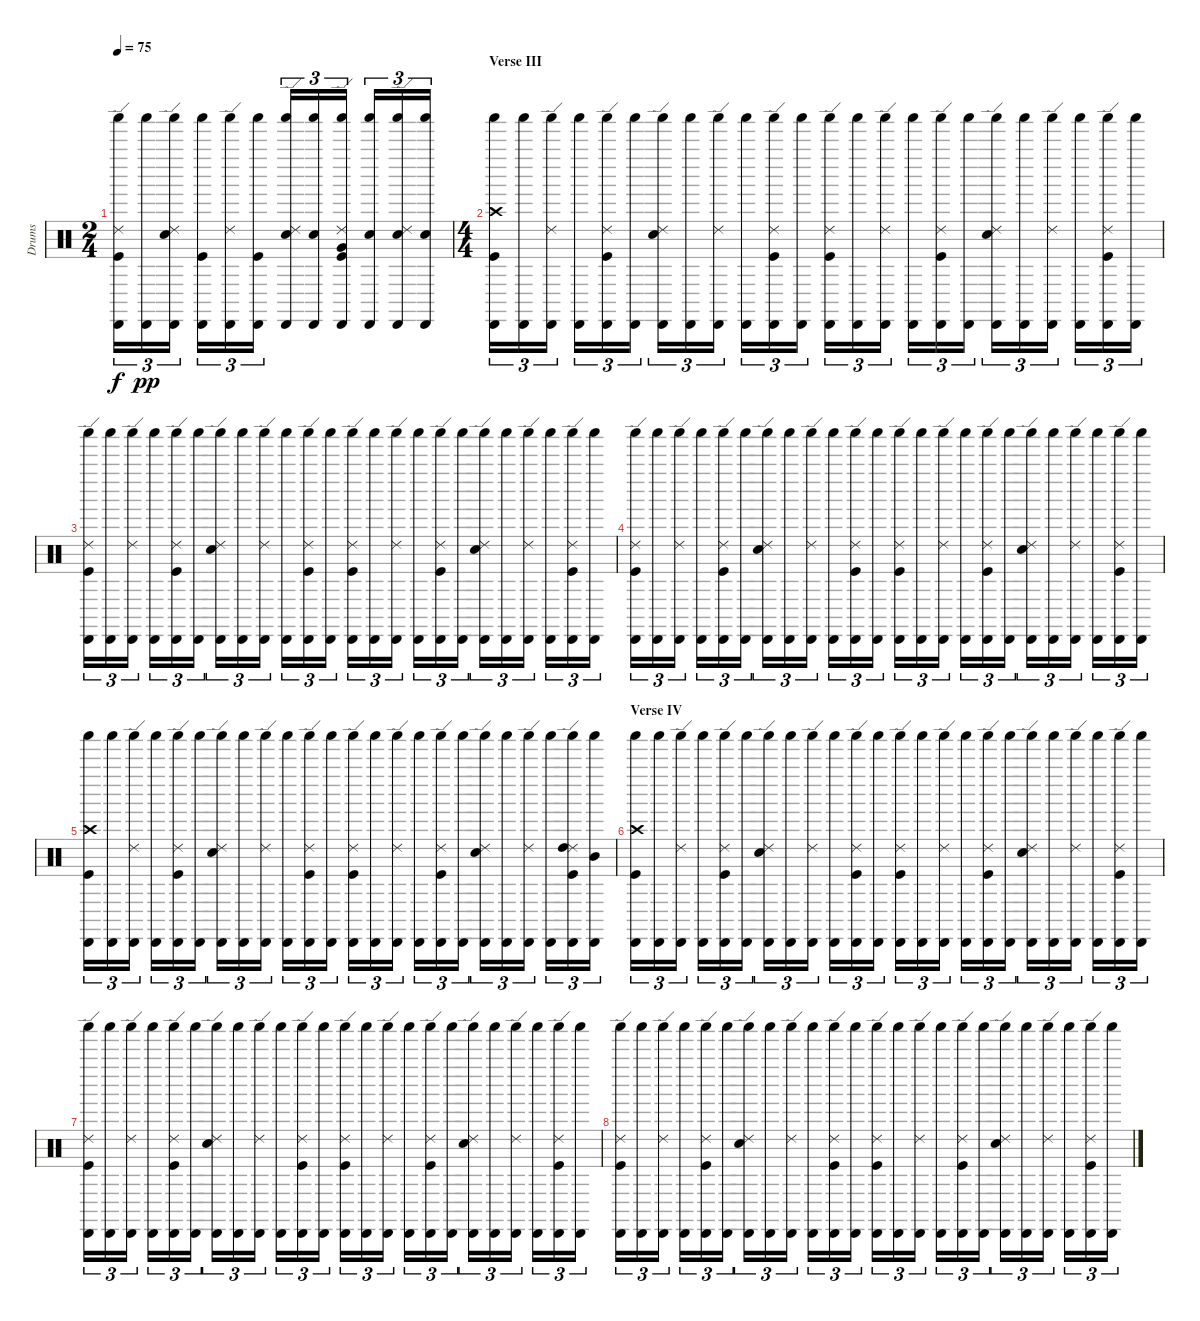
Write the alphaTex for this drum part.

\track ("Drums" "Drums") {instrument percussion}
\staff {score}
\articulation defaults
\ts (2 4)
\tempo 75
\clef neutral
\ks c
("Ride (edge) 2" "Cabasa (hit)" "Kick (hit)" "Shaker (hit)").16{tu (3 2) dy f} ("Cabasa (hit)" "Shaker (hit)").16{tu (3 2) dy pp} ("Electric Snare (hit)" "Ride (edge) 2" "Cabasa (hit)" "Shaker (hit)").16{tu (3 2)} ("Cabasa (hit)" "Kick (hit)" "Shaker (hit)").16{tu (3 2)} ("Cabasa (hit)" "Ride (edge) 2" "Shaker (hit)").16{tu (3 2)} ("Cabasa (hit)" "Kick (hit)" "Shaker (hit)").16{tu (3 2)} ("Ride (edge) 2" "Electric Snare (hit)" "Cabasa (hit)" "Shaker (hit)").16{tu (3 2)} ("Cabasa (hit)" "Electric Snare (hit)" "Shaker (hit)").16{tu (3 2)} ("Kick (hit)" "Cabasa (hit)" "Ride (edge) 2" "Very Low Tom (hit)" "Shaker (hit)").16{tu (3 2)} ("Cabasa (hit)" "Electric Snare (hit)" "Shaker (hit)").16{tu (3 2)} ("Electric Snare (hit)" "Cabasa (hit)" "Ride (edge) 2" "Shaker (hit)").16{tu (3 2)} ("Cabasa (hit)" "Electric Snare (hit)" "Shaker (hit)").16{tu (3 2)} |
\ts (4 4)
\section ("" "Verse III")
("Crash high (hit)" "Kick (hit)" "Cabasa (hit)" "Shaker (hit)").16{tu (3 2)} ("Cabasa (hit)" "Shaker (hit)").16{tu (3 2)} ("Ride (edge) 2" "Cabasa (hit)" "Shaker (hit)").16{tu (3 2)} ("Cabasa (hit)" "Shaker (hit)").16{tu (3 2)} ("Cabasa (hit)" "Kick (hit)" "Ride (edge) 2" "Shaker (hit)").16{tu (3 2)} ("Cabasa (hit)" "Shaker (hit)").16{tu (3 2)} ("Cabasa (hit)" "Ride (edge) 2" "Electric Snare (hit)" "Shaker (hit)").16{tu (3 2)} ("Cabasa (hit)" "Shaker (hit)").16{tu (3 2)} ("Ride (edge) 2" "Cabasa (hit)" "Shaker (hit)").16{tu (3 2)} ("Cabasa (hit)" "Shaker (hit)").16{tu (3 2)} ("Cabasa (hit)" "Ride (edge) 2" "Kick (hit)" "Shaker (hit)").16{tu (3 2)} ("Cabasa (hit)" "Shaker (hit)").16{tu (3 2)} ("Kick (hit)" "Ride (edge) 2" "Cabasa (hit)" "Shaker (hit)").16{tu (3 2)} ("Cabasa (hit)" "Shaker (hit)").16{tu (3 2)} ("Cabasa (hit)" "Ride (edge) 2" "Shaker (hit)").16{tu (3 2)} ("Cabasa (hit)" "Shaker (hit)").16{tu (3 2)} ("Kick (hit)" "Cabasa (hit)" "Ride (edge) 2" "Shaker (hit)").16{tu (3 2)} ("Cabasa (hit)" "Shaker (hit)").16{tu (3 2)} ("Electric Snare (hit)" "Cabasa (hit)" "Ride (edge) 2" "Shaker (hit)").16{tu (3 2)} ("Cabasa (hit)" "Shaker (hit)").16{tu (3 2)} ("Cabasa (hit)" "Ride (edge) 2" "Shaker (hit)").16{tu (3 2)} ("Cabasa (hit)" "Shaker (hit)").16{tu (3 2)} ("Cabasa (hit)" "Kick (hit)" "Ride (edge) 2" "Shaker (hit)").16{tu (3 2)} ("Cabasa (hit)" "Shaker (hit)").16{tu (3 2)} |
("Ride (edge) 2" "Kick (hit)" "Cabasa (hit)" "Shaker (hit)").16{tu (3 2)} ("Cabasa (hit)" "Shaker (hit)").16{tu (3 2)} ("Ride (edge) 2" "Cabasa (hit)" "Shaker (hit)").16{tu (3 2)} ("Cabasa (hit)" "Shaker (hit)").16{tu (3 2)} ("Cabasa (hit)" "Kick (hit)" "Ride (edge) 2" "Shaker (hit)").16{tu (3 2)} ("Cabasa (hit)" "Shaker (hit)").16{tu (3 2)} ("Cabasa (hit)" "Ride (edge) 2" "Electric Snare (hit)" "Shaker (hit)").16{tu (3 2)} ("Cabasa (hit)" "Shaker (hit)").16{tu (3 2)} ("Ride (edge) 2" "Cabasa (hit)" "Shaker (hit)").16{tu (3 2)} ("Cabasa (hit)" "Shaker (hit)").16{tu (3 2)} ("Cabasa (hit)" "Ride (edge) 2" "Kick (hit)" "Shaker (hit)").16{tu (3 2)} ("Cabasa (hit)" "Shaker (hit)").16{tu (3 2)} ("Kick (hit)" "Ride (edge) 2" "Cabasa (hit)" "Shaker (hit)").16{tu (3 2)} ("Cabasa (hit)" "Shaker (hit)").16{tu (3 2)} ("Cabasa (hit)" "Ride (edge) 2" "Shaker (hit)").16{tu (3 2)} ("Cabasa (hit)" "Shaker (hit)").16{tu (3 2)} ("Kick (hit)" "Cabasa (hit)" "Ride (edge) 2" "Shaker (hit)").16{tu (3 2)} ("Cabasa (hit)" "Shaker (hit)").16{tu (3 2)} ("Electric Snare (hit)" "Cabasa (hit)" "Ride (edge) 2" "Shaker (hit)").16{tu (3 2)} ("Cabasa (hit)" "Shaker (hit)").16{tu (3 2)} ("Cabasa (hit)" "Ride (edge) 2" "Shaker (hit)").16{tu (3 2)} ("Cabasa (hit)" "Shaker (hit)").16{tu (3 2)} ("Cabasa (hit)" "Kick (hit)" "Ride (edge) 2" "Shaker (hit)").16{tu (3 2)} ("Cabasa (hit)" "Shaker (hit)").16{tu (3 2)} |
("Ride (edge) 2" "Kick (hit)" "Cabasa (hit)" "Shaker (hit)").16{tu (3 2)} ("Cabasa (hit)" "Shaker (hit)").16{tu (3 2)} ("Ride (edge) 2" "Cabasa (hit)" "Shaker (hit)").16{tu (3 2)} ("Cabasa (hit)" "Shaker (hit)").16{tu (3 2)} ("Cabasa (hit)" "Kick (hit)" "Ride (edge) 2" "Shaker (hit)").16{tu (3 2)} ("Cabasa (hit)" "Shaker (hit)").16{tu (3 2)} ("Cabasa (hit)" "Ride (edge) 2" "Electric Snare (hit)" "Shaker (hit)").16{tu (3 2)} ("Cabasa (hit)" "Shaker (hit)").16{tu (3 2)} ("Ride (edge) 2" "Cabasa (hit)" "Shaker (hit)").16{tu (3 2)} ("Cabasa (hit)" "Shaker (hit)").16{tu (3 2)} ("Cabasa (hit)" "Ride (edge) 2" "Kick (hit)" "Shaker (hit)").16{tu (3 2)} ("Cabasa (hit)" "Shaker (hit)").16{tu (3 2)} ("Kick (hit)" "Ride (edge) 2" "Cabasa (hit)" "Shaker (hit)").16{tu (3 2)} ("Cabasa (hit)" "Shaker (hit)").16{tu (3 2)} ("Cabasa (hit)" "Ride (edge) 2" "Shaker (hit)").16{tu (3 2)} ("Cabasa (hit)" "Shaker (hit)").16{tu (3 2)} ("Kick (hit)" "Cabasa (hit)" "Ride (edge) 2" "Shaker (hit)").16{tu (3 2)} ("Cabasa (hit)" "Shaker (hit)").16{tu (3 2)} ("Electric Snare (hit)" "Cabasa (hit)" "Ride (edge) 2" "Shaker (hit)").16{tu (3 2)} ("Cabasa (hit)" "Shaker (hit)").16{tu (3 2)} ("Cabasa (hit)" "Ride (edge) 2" "Shaker (hit)").16{tu (3 2)} ("Cabasa (hit)" "Shaker (hit)").16{tu (3 2)} ("Cabasa (hit)" "Kick (hit)" "Ride (edge) 2" "Shaker (hit)").16{tu (3 2)} ("Cabasa (hit)" "Shaker (hit)").16{tu (3 2)} |
("Crash high (hit)" "Kick (hit)" "Cabasa (hit)" "Shaker (hit)").16{tu (3 2)} ("Cabasa (hit)" "Shaker (hit)").16{tu (3 2)} ("Ride (edge) 2" "Cabasa (hit)" "Shaker (hit)").16{tu (3 2)} ("Cabasa (hit)" "Shaker (hit)").16{tu (3 2)} ("Cabasa (hit)" "Kick (hit)" "Ride (edge) 2" "Shaker (hit)").16{tu (3 2)} ("Cabasa (hit)" "Shaker (hit)").16{tu (3 2)} ("Cabasa (hit)" "Ride (edge) 2" "Electric Snare (hit)" "Shaker (hit)").16{tu (3 2)} ("Cabasa (hit)" "Shaker (hit)").16{tu (3 2)} ("Ride (edge) 2" "Cabasa (hit)" "Shaker (hit)").16{tu (3 2)} ("Cabasa (hit)" "Shaker (hit)").16{tu (3 2)} ("Cabasa (hit)" "Ride (edge) 2" "Kick (hit)" "Shaker (hit)").16{tu (3 2)} ("Cabasa (hit)" "Shaker (hit)").16{tu (3 2)} ("Kick (hit)" "Ride (edge) 2" "Cabasa (hit)" "Shaker (hit)").16{tu (3 2)} ("Cabasa (hit)" "Shaker (hit)").16{tu (3 2)} ("Cabasa (hit)" "Ride (edge) 2" "Shaker (hit)").16{tu (3 2)} ("Cabasa (hit)" "Shaker (hit)").16{tu (3 2)} ("Kick (hit)" "Cabasa (hit)" "Ride (edge) 2" "Shaker (hit)").16{tu (3 2)} ("Cabasa (hit)" "Shaker (hit)").16{tu (3 2)} ("Electric Snare (hit)" "Cabasa (hit)" "Ride (edge) 2" "Shaker (hit)").16{tu (3 2)} ("Cabasa (hit)" "Shaker (hit)").16{tu (3 2)} ("Cabasa (hit)" "Ride (edge) 2" "Shaker (hit)").16{tu (3 2)} ("Cabasa (hit)" "Shaker (hit)").16{tu (3 2)} ("Cabasa (hit)" "Kick (hit)" "Ride (edge) 2" "Shaker (hit)" "High Tom (hit)").16{tu (3 2)} ("Cabasa (hit)" "Shaker (hit)" "Mid Tom (hit)").16{tu (3 2)} |
\section ("" "Verse IV")
("Crash high (hit)" "Kick (hit)" "Cabasa (hit)" "Shaker (hit)").16{tu (3 2)} ("Cabasa (hit)" "Shaker (hit)").16{tu (3 2)} ("Ride (edge) 2" "Cabasa (hit)" "Shaker (hit)").16{tu (3 2)} ("Cabasa (hit)" "Shaker (hit)").16{tu (3 2)} ("Cabasa (hit)" "Kick (hit)" "Ride (edge) 2" "Shaker (hit)").16{tu (3 2)} ("Cabasa (hit)" "Shaker (hit)").16{tu (3 2)} ("Cabasa (hit)" "Ride (edge) 2" "Electric Snare (hit)" "Shaker (hit)").16{tu (3 2)} ("Cabasa (hit)" "Shaker (hit)").16{tu (3 2)} ("Ride (edge) 2" "Cabasa (hit)" "Shaker (hit)").16{tu (3 2)} ("Cabasa (hit)" "Shaker (hit)").16{tu (3 2)} ("Cabasa (hit)" "Ride (edge) 2" "Kick (hit)" "Shaker (hit)").16{tu (3 2)} ("Cabasa (hit)" "Shaker (hit)").16{tu (3 2)} ("Kick (hit)" "Ride (edge) 2" "Cabasa (hit)" "Shaker (hit)").16{tu (3 2)} ("Cabasa (hit)" "Shaker (hit)").16{tu (3 2)} ("Cabasa (hit)" "Ride (edge) 2" "Shaker (hit)").16{tu (3 2)} ("Cabasa (hit)" "Shaker (hit)").16{tu (3 2)} ("Kick (hit)" "Cabasa (hit)" "Ride (edge) 2" "Shaker (hit)").16{tu (3 2)} ("Cabasa (hit)" "Shaker (hit)").16{tu (3 2)} ("Electric Snare (hit)" "Cabasa (hit)" "Ride (edge) 2" "Shaker (hit)").16{tu (3 2)} ("Cabasa (hit)" "Shaker (hit)").16{tu (3 2)} ("Cabasa (hit)" "Ride (edge) 2" "Shaker (hit)").16{tu (3 2)} ("Cabasa (hit)" "Shaker (hit)").16{tu (3 2)} ("Cabasa (hit)" "Kick (hit)" "Ride (edge) 2" "Shaker (hit)").16{tu (3 2)} ("Cabasa (hit)" "Shaker (hit)").16{tu (3 2)} |
("Ride (edge) 2" "Kick (hit)" "Cabasa (hit)" "Shaker (hit)").16{tu (3 2)} ("Cabasa (hit)" "Shaker (hit)").16{tu (3 2)} ("Ride (edge) 2" "Cabasa (hit)" "Shaker (hit)").16{tu (3 2)} ("Cabasa (hit)" "Shaker (hit)").16{tu (3 2)} ("Cabasa (hit)" "Kick (hit)" "Ride (edge) 2" "Shaker (hit)").16{tu (3 2)} ("Cabasa (hit)" "Shaker (hit)").16{tu (3 2)} ("Cabasa (hit)" "Ride (edge) 2" "Electric Snare (hit)" "Shaker (hit)").16{tu (3 2)} ("Cabasa (hit)" "Shaker (hit)").16{tu (3 2)} ("Ride (edge) 2" "Cabasa (hit)" "Shaker (hit)").16{tu (3 2)} ("Cabasa (hit)" "Shaker (hit)").16{tu (3 2)} ("Cabasa (hit)" "Ride (edge) 2" "Kick (hit)" "Shaker (hit)").16{tu (3 2)} ("Cabasa (hit)" "Shaker (hit)").16{tu (3 2)} ("Kick (hit)" "Ride (edge) 2" "Cabasa (hit)" "Shaker (hit)").16{tu (3 2)} ("Cabasa (hit)" "Shaker (hit)").16{tu (3 2)} ("Cabasa (hit)" "Ride (edge) 2" "Shaker (hit)").16{tu (3 2)} ("Cabasa (hit)" "Shaker (hit)").16{tu (3 2)} ("Kick (hit)" "Cabasa (hit)" "Ride (edge) 2" "Shaker (hit)").16{tu (3 2)} ("Cabasa (hit)" "Shaker (hit)").16{tu (3 2)} ("Electric Snare (hit)" "Cabasa (hit)" "Ride (edge) 2" "Shaker (hit)").16{tu (3 2)} ("Cabasa (hit)" "Shaker (hit)").16{tu (3 2)} ("Cabasa (hit)" "Ride (edge) 2" "Shaker (hit)").16{tu (3 2)} ("Cabasa (hit)" "Shaker (hit)").16{tu (3 2)} ("Cabasa (hit)" "Kick (hit)" "Ride (edge) 2" "Shaker (hit)").16{tu (3 2)} ("Cabasa (hit)" "Shaker (hit)").16{tu (3 2)} |
("Ride (edge) 2" "Kick (hit)" "Cabasa (hit)" "Shaker (hit)").16{tu (3 2)} ("Cabasa (hit)" "Shaker (hit)").16{tu (3 2)} ("Ride (edge) 2" "Cabasa (hit)" "Shaker (hit)").16{tu (3 2)} ("Cabasa (hit)" "Shaker (hit)").16{tu (3 2)} ("Cabasa (hit)" "Kick (hit)" "Ride (edge) 2" "Shaker (hit)").16{tu (3 2)} ("Cabasa (hit)" "Shaker (hit)").16{tu (3 2)} ("Cabasa (hit)" "Ride (edge) 2" "Electric Snare (hit)" "Shaker (hit)").16{tu (3 2)} ("Cabasa (hit)" "Shaker (hit)").16{tu (3 2)} ("Ride (edge) 2" "Cabasa (hit)" "Shaker (hit)").16{tu (3 2)} ("Cabasa (hit)" "Shaker (hit)").16{tu (3 2)} ("Cabasa (hit)" "Ride (edge) 2" "Kick (hit)" "Shaker (hit)").16{tu (3 2)} ("Cabasa (hit)" "Shaker (hit)").16{tu (3 2)} ("Kick (hit)" "Ride (edge) 2" "Cabasa (hit)" "Shaker (hit)").16{tu (3 2)} ("Cabasa (hit)" "Shaker (hit)").16{tu (3 2)} ("Cabasa (hit)" "Ride (edge) 2" "Shaker (hit)").16{tu (3 2)} ("Cabasa (hit)" "Shaker (hit)").16{tu (3 2)} ("Kick (hit)" "Cabasa (hit)" "Ride (edge) 2" "Shaker (hit)").16{tu (3 2)} ("Cabasa (hit)" "Shaker (hit)").16{tu (3 2)} ("Electric Snare (hit)" "Cabasa (hit)" "Ride (edge) 2" "Shaker (hit)").16{tu (3 2)} ("Cabasa (hit)" "Shaker (hit)").16{tu (3 2)} ("Cabasa (hit)" "Ride (edge) 2" "Shaker (hit)").16{tu (3 2)} ("Cabasa (hit)" "Shaker (hit)").16{tu (3 2)} ("Cabasa (hit)" "Kick (hit)" "Ride (edge) 2" "Shaker (hit)").16{tu (3 2)} ("Cabasa (hit)" "Shaker (hit)").16{tu (3 2)}
